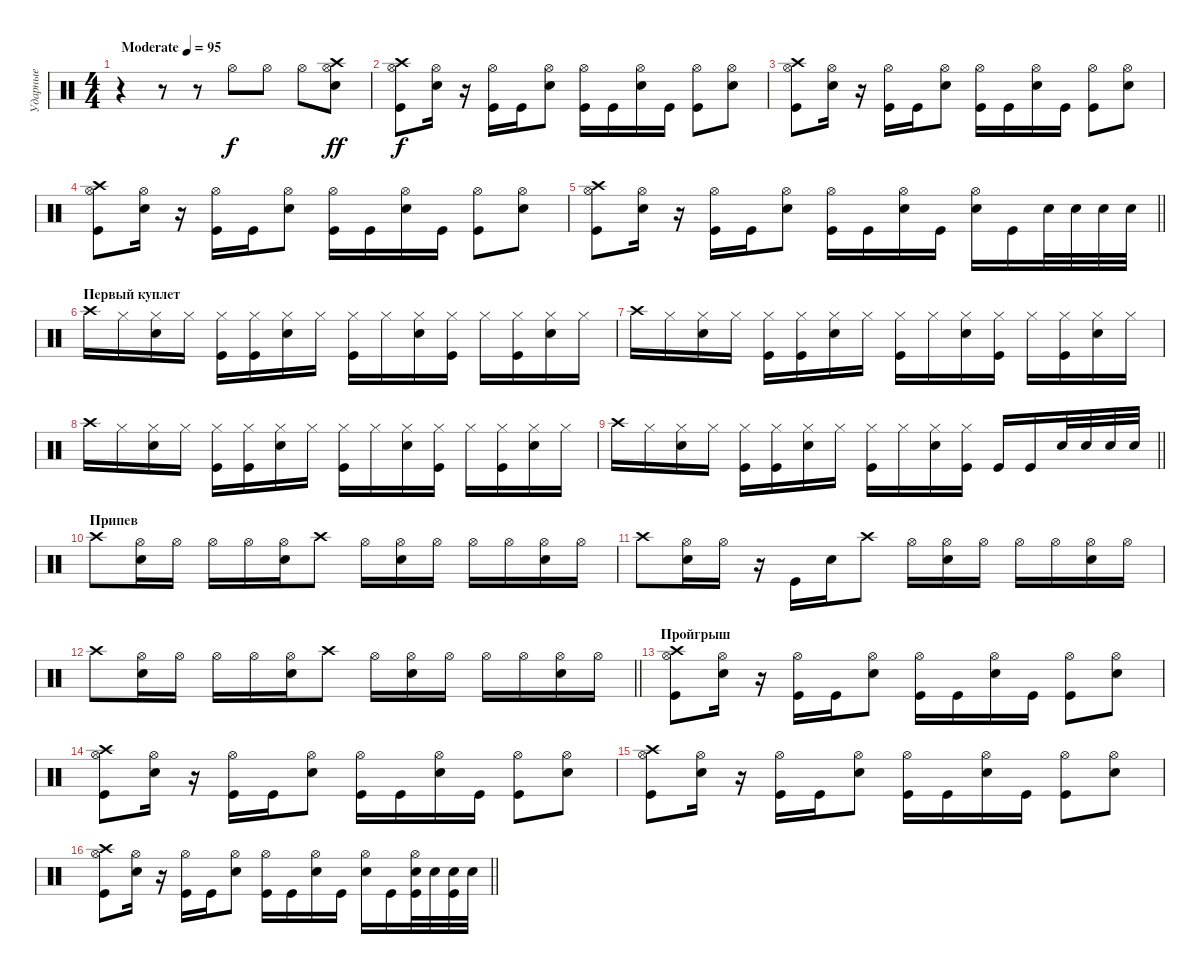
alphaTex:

\track ("Ударные" "Ударные") {instrument percussion}
\staff {score}
\articulation defaults
\ts (4 4)
\tempo (95 "Moderate")
\clef neutral
\ks c
r.4{dy f} r.8 r.8 "Hi-Hat (open)".8 "Hi-Hat (open)".8 "Hi-Hat (open)".8 ("Snare (hit) 2" "Hi-Hat (open)" "Crash high (hit)").8{dy ff} |
("Kick (hit)" "Hi-Hat (open)" "Crash high (hit)").8{dy f} ("Hi-Hat (open)" "Snare (hit) 2").16 r.16 ("Hi-Hat (open)" "Kick (hit)").16 "Kick (hit)".16 ("Hi-Hat (open)" "Snare (hit) 2").8 ("Hi-Hat (open)" "Kick (hit)").16 "Kick (hit)".16 ("Hi-Hat (open)" "Snare (hit) 2").16 "Kick (hit)".16 ("Hi-Hat (open)" "Kick (hit)").8 ("Hi-Hat (open)" "Snare (hit) 2").8 |
("Kick (hit)" "Hi-Hat (open)" "Crash high (hit)").8 ("Hi-Hat (open)" "Snare (hit) 2").16 r.16 ("Hi-Hat (open)" "Kick (hit)").16 "Kick (hit)".16 ("Hi-Hat (open)" "Snare (hit) 2").8 ("Hi-Hat (open)" "Kick (hit)").16 "Kick (hit)".16 ("Hi-Hat (open)" "Snare (hit) 2").16 "Kick (hit)".16 ("Hi-Hat (open)" "Kick (hit)").8 ("Hi-Hat (open)" "Snare (hit) 2").8 |
("Kick (hit)" "Hi-Hat (open)" "Crash high (hit)").8 ("Hi-Hat (open)" "Snare (hit) 2").16 r.16 ("Hi-Hat (open)" "Kick (hit)").16 "Kick (hit)".16 ("Hi-Hat (open)" "Snare (hit) 2").8 ("Hi-Hat (open)" "Kick (hit)").16 "Kick (hit)".16 ("Hi-Hat (open)" "Snare (hit) 2").16 "Kick (hit)".16 ("Hi-Hat (open)" "Kick (hit)").8 ("Hi-Hat (open)" "Snare (hit) 2").8 |
\barLineRight lightlight
("Kick (hit)" "Hi-Hat (open)" "Crash high (hit)").8 ("Hi-Hat (open)" "Snare (hit) 2").16 r.16 ("Hi-Hat (open)" "Kick (hit)").16 "Kick (hit)".16 ("Hi-Hat (open)" "Snare (hit) 2").8 ("Hi-Hat (open)" "Kick (hit)").16 "Kick (hit)".16 ("Hi-Hat (open)" "Snare (hit) 2").16 "Kick (hit)".16 ("Hi-Hat (open)" "Snare (hit) 2").16 "Kick (hit)".16 "Snare (hit) 2".32 "Snare (hit) 2".32 "Snare (hit) 2".32 "Snare (hit) 2".32 |
\section ("" "Первый куплет")
"Crash high (hit)".16 "Hi-Hat (closed)".16 ("Hi-Hat (closed)" "Snare (hit) 2").16 "Hi-Hat (closed)".16 ("Hi-Hat (closed)" "Kick (hit)").16 ("Hi-Hat (closed)" "Kick (hit)").16 ("Hi-Hat (closed)" "Snare (hit) 2").16 "Hi-Hat (closed)".16 ("Hi-Hat (closed)" "Kick (hit)").16 "Hi-Hat (closed)".16 ("Hi-Hat (closed)" "Snare (hit) 2").16 ("Hi-Hat (closed)" "Kick (hit)").16 "Hi-Hat (closed)".16 ("Hi-Hat (closed)" "Kick (hit)").16 ("Hi-Hat (closed)" "Snare (hit) 2").16 "Hi-Hat (closed)".16 |
"Crash high (hit)".16 "Hi-Hat (closed)".16 ("Hi-Hat (closed)" "Snare (hit) 2").16 "Hi-Hat (closed)".16 ("Hi-Hat (closed)" "Kick (hit)").16 ("Hi-Hat (closed)" "Kick (hit)").16 ("Hi-Hat (closed)" "Snare (hit) 2").16 "Hi-Hat (closed)".16 ("Hi-Hat (closed)" "Kick (hit)").16 "Hi-Hat (closed)".16 ("Hi-Hat (closed)" "Snare (hit) 2").16 ("Hi-Hat (closed)" "Kick (hit)").16 "Hi-Hat (closed)".16 ("Hi-Hat (closed)" "Kick (hit)").16 ("Hi-Hat (closed)" "Snare (hit) 2").16 "Hi-Hat (closed)".16 |
"Crash high (hit)".16 "Hi-Hat (closed)".16 ("Hi-Hat (closed)" "Snare (hit) 2").16 "Hi-Hat (closed)".16 ("Hi-Hat (closed)" "Kick (hit)").16 ("Hi-Hat (closed)" "Kick (hit)").16 ("Hi-Hat (closed)" "Snare (hit) 2").16 "Hi-Hat (closed)".16 ("Hi-Hat (closed)" "Kick (hit)").16 "Hi-Hat (closed)".16 ("Hi-Hat (closed)" "Snare (hit) 2").16 ("Hi-Hat (closed)" "Kick (hit)").16 "Hi-Hat (closed)".16 ("Hi-Hat (closed)" "Kick (hit)").16 ("Hi-Hat (closed)" "Snare (hit) 2").16 "Hi-Hat (closed)".16 |
\barLineRight lightlight "Crash high (hit)".16 "Hi-Hat (closed)".16
("Hi-Hat (closed)" "Snare (hit) 2").16 "Hi-Hat (closed)".16 ("Hi-Hat (closed)" "Kick (hit)").16 ("Hi-Hat (closed)" "Kick (hit)").16 ("Hi-Hat (closed)" "Snare (hit) 2").16 "Hi-Hat (closed)".16 ("Hi-Hat (closed)" "Kick (hit)").16 "Hi-Hat (closed)".16 ("Hi-Hat (closed)" "Snare (hit) 2").16 ("Hi-Hat (closed)" "Kick (hit)").16 "Kick (hit)".16 "Kick (hit)".16 "Snare (hit) 2".32 "Snare (hit) 2".32 "Snare (hit) 2".32 "Snare (hit) 2".32 |
\section ("" "Припев")
"Crash high (hit)".8 ("Hi-Hat (open)" "Snare (hit) 2").16 "Hi-Hat (open)".16 "Hi-Hat (open)".16 "Hi-Hat (open)".16 ("Hi-Hat (open)" "Snare (hit) 2").16 "Crash high (hit)".8 "Hi-Hat (open)".16 ("Hi-Hat (open)" "Snare (hit) 2").16 "Hi-Hat (open)".16 "Hi-Hat (open)".16 "Hi-Hat (open)".16 ("Hi-Hat (open)" "Snare (hit) 2").16 "Hi-Hat (open)".16 |
"Crash high (hit)".8 ("Hi-Hat (open)" "Snare (hit) 2").16 "Hi-Hat (open)".16 r.16 "Kick (hit)".16 "Snare (hit) 2".16 "Crash high (hit)".8 "Hi-Hat (open)".16 ("Hi-Hat (open)" "Snare (hit) 2").16 "Hi-Hat (open)".16 "Hi-Hat (open)".16 "Hi-Hat (open)".16 ("Hi-Hat (open)" "Snare (hit) 2").16 "Hi-Hat (open)".16 |
\barLineRight lightlight "Crash high (hit)".8
("Hi-Hat (open)" "Snare (hit) 2").16 "Hi-Hat (open)".16 "Hi-Hat (open)".16 "Hi-Hat (open)".16 ("Hi-Hat (open)" "Snare (hit) 2").16 "Crash high (hit)".8 "Hi-Hat (open)".16 ("Hi-Hat (open)" "Snare (hit) 2").16 "Hi-Hat (open)".16 "Hi-Hat (open)".16 "Hi-Hat (open)".16 ("Hi-Hat (open)" "Snare (hit) 2").16 "Hi-Hat (open)".16 |
\section ("" "Пройгрыш")
("Kick (hit)" "Hi-Hat (open)" "Crash high (hit)").8 ("Hi-Hat (open)" "Snare (hit) 2").16 r.16 ("Hi-Hat (open)" "Kick (hit)").16 "Kick (hit)".16 ("Hi-Hat (open)" "Snare (hit) 2").8 ("Hi-Hat (open)" "Kick (hit)").16 "Kick (hit)".16 ("Hi-Hat (open)" "Snare (hit) 2").16 "Kick (hit)".16 ("Hi-Hat (open)" "Kick (hit)").8 ("Hi-Hat (open)" "Snare (hit) 2").8 |
("Kick (hit)" "Hi-Hat (open)" "Crash high (hit)").8 ("Hi-Hat (open)" "Snare (hit) 2").16 r.16 ("Hi-Hat (open)" "Kick (hit)").16 "Kick (hit)".16 ("Hi-Hat (open)" "Snare (hit) 2").8 ("Hi-Hat (open)" "Kick (hit)").16 "Kick (hit)".16 ("Hi-Hat (open)" "Snare (hit) 2").16 "Kick (hit)".16 ("Hi-Hat (open)" "Kick (hit)").8 ("Hi-Hat (open)" "Snare (hit) 2").8 |
("Kick (hit)" "Hi-Hat (open)" "Crash high (hit)").8 ("Hi-Hat (open)" "Snare (hit) 2").16 r.16 ("Hi-Hat (open)" "Kick (hit)").16 "Kick (hit)".16 ("Hi-Hat (open)" "Snare (hit) 2").8 ("Hi-Hat (open)" "Kick (hit)").16 "Kick (hit)".16 ("Hi-Hat (open)" "Snare (hit) 2").16 "Kick (hit)".16 ("Hi-Hat (open)" "Kick (hit)").8 ("Hi-Hat (open)" "Snare (hit) 2").8 |
\barLineRight lightlight
("Kick (hit)" "Hi-Hat (open)" "Crash high (hit)").8 ("Hi-Hat (open)" "Snare (hit) 2").16 r.16 ("Hi-Hat (open)" "Kick (hit)").16 "Kick (hit)".16 ("Hi-Hat (open)" "Snare (hit) 2").8 ("Hi-Hat (open)" "Kick (hit)").16 "Kick (hit)".16 ("Hi-Hat (open)" "Snare (hit) 2").16 "Kick (hit)".16 ("Hi-Hat (open)" "Snare (hit) 2").16 "Kick (hit)".16 ("Hi-Hat (open)" "Snare (hit) 2" "Kick (hit)").32 "Snare (hit) 2".32 ("Snare (hit) 2" "Kick (hit)").32 "Snare (hit) 2".32
